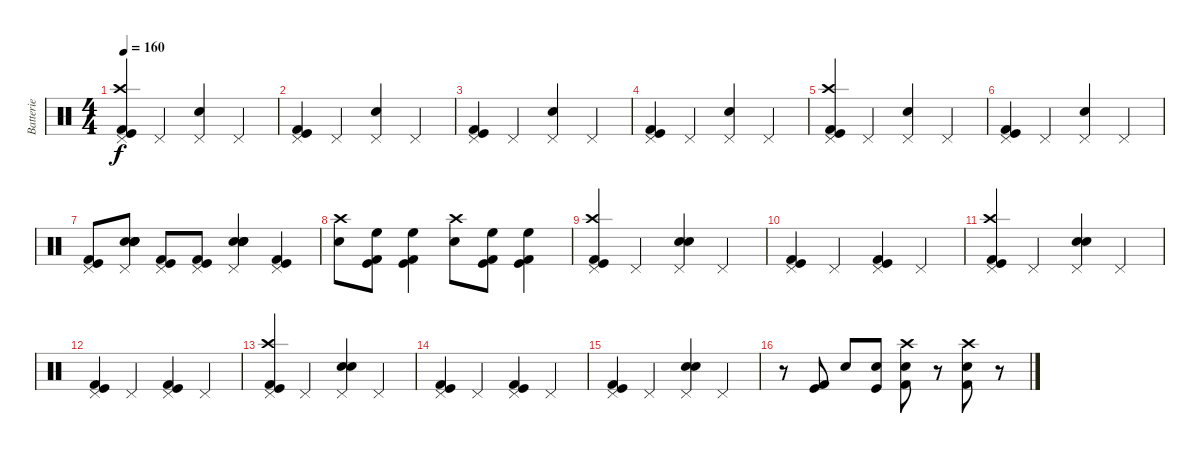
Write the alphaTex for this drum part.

\track ("Batterie" "Batterie") {instrument percussion}
\staff {score}
\articulation defaults
\ts (4 4)
\tempo 160
\clef neutral
\ks c
("Pedal Hi-Hat (hit)" "Crash high (hit)" "Kick (hit) 2" "Kick (hit)").4{dy f} "Pedal Hi-Hat (hit)".4 ("Pedal Hi-Hat (hit)" "Electric Snare (hit)").4 "Pedal Hi-Hat (hit)".4 |
("Pedal Hi-Hat (hit)" "Kick (hit) 2" "Kick (hit)").4 "Pedal Hi-Hat (hit)".4 ("Pedal Hi-Hat (hit)" "Electric Snare (hit)").4 "Pedal Hi-Hat (hit)".4 |
("Pedal Hi-Hat (hit)" "Kick (hit) 2" "Kick (hit)").4 "Pedal Hi-Hat (hit)".4 ("Pedal Hi-Hat (hit)" "Electric Snare (hit)").4 "Pedal Hi-Hat (hit)".4 |
("Pedal Hi-Hat (hit)" "Kick (hit) 2" "Kick (hit)").4 "Pedal Hi-Hat (hit)".4 ("Pedal Hi-Hat (hit)" "Electric Snare (hit)").4 "Pedal Hi-Hat (hit)".4 |
("Pedal Hi-Hat (hit)" "Crash high (hit)" "Kick (hit) 2" "Kick (hit)").4 "Pedal Hi-Hat (hit)".4 ("Pedal Hi-Hat (hit)" "Electric Snare (hit)").4 "Pedal Hi-Hat (hit)".4 |
("Pedal Hi-Hat (hit)" "Kick (hit) 2" "Kick (hit)").4 "Pedal Hi-Hat (hit)".4 ("Pedal Hi-Hat (hit)" "Electric Snare (hit)").4 "Pedal Hi-Hat (hit)".4 |
("Pedal Hi-Hat (hit)" "Kick (hit) 2" "Kick (hit)").8 ("Pedal Hi-Hat (hit)" "Electric Snare (hit)" "Electric Snare (hit)" "Snare (hit) 2" "Snare (hit) 2").8 ("Pedal Hi-Hat (hit)" "Kick (hit) 2" "Kick (hit)").8 ("Pedal Hi-Hat (hit)" "Kick (hit) 2" "Kick (hit)").8 ("Pedal Hi-Hat (hit)" "Electric Snare (hit)" "Electric Snare (hit)" "Snare (hit) 2" "Snare (hit) 2").4 ("Pedal Hi-Hat (hit)" "Kick (hit) 2" "Kick (hit)").4 |
("Electric Snare (hit)" "Crash high (hit)").8{volume 16} ("Kick (hit) 2" "Kick (hit)" "High Floor Tom (hit)").8 ("Kick (hit) 2" "Kick (hit)" "High Floor Tom (hit)").4 ("Electric Snare (hit)" "Crash high (hit)").8 ("Kick (hit) 2" "Kick (hit)" "High Floor Tom (hit)").8 ("Kick (hit) 2" "Kick (hit)" "High Floor Tom (hit)").4 |
("Crash high (hit)" "Pedal Hi-Hat (hit)" "Kick (hit)" "Kick (hit) 2").4 "Pedal Hi-Hat (hit)".4 ("Pedal Hi-Hat (hit)" "Electric Snare (hit)" "Electric Snare (hit)").4 "Pedal Hi-Hat (hit)".4 |
("Pedal Hi-Hat (hit)" "Kick (hit)" "Kick (hit) 2").4 "Pedal Hi-Hat (hit)".4 ("Pedal Hi-Hat (hit)" "Kick (hit)" "Kick (hit) 2").4 "Pedal Hi-Hat (hit)".4 |
("Crash high (hit)" "Pedal Hi-Hat (hit)" "Kick (hit)" "Kick (hit) 2").4 "Pedal Hi-Hat (hit)".4 ("Pedal Hi-Hat (hit)" "Electric Snare (hit)" "Electric Snare (hit)").4 "Pedal Hi-Hat (hit)".4 |
("Pedal Hi-Hat (hit)" "Kick (hit)" "Kick (hit) 2").4 "Pedal Hi-Hat (hit)".4 ("Pedal Hi-Hat (hit)" "Kick (hit)" "Kick (hit) 2").4 "Pedal Hi-Hat (hit)".4 |
("Crash high (hit)" "Pedal Hi-Hat (hit)" "Kick (hit)" "Kick (hit) 2").4 "Pedal Hi-Hat (hit)".4 ("Pedal Hi-Hat (hit)" "Electric Snare (hit)" "Electric Snare (hit)").4 "Pedal Hi-Hat (hit)".4 |
("Pedal Hi-Hat (hit)" "Kick (hit)" "Kick (hit) 2").4 "Pedal Hi-Hat (hit)".4 ("Pedal Hi-Hat (hit)" "Kick (hit)" "Kick (hit) 2").4 "Pedal Hi-Hat (hit)".4 |
("Pedal Hi-Hat (hit)" "Kick (hit)" "Kick (hit) 2").4 "Pedal Hi-Hat (hit)".4 ("Pedal Hi-Hat (hit)" "Electric Snare (hit)" "Electric Snare (hit)").4 "Pedal Hi-Hat (hit)".4 |
r.8 ("Kick (hit)" "Kick (hit) 2").8 "Electric Snare (hit)".8 ("Snare (hit) 2" "Kick (hit)").8 ("Crash high (hit)" "Snare (hit) 2" "Kick (hit) 2").8 r.8 ("Crash high (hit)" "Electric Snare (hit)" "Kick (hit) 2").8 r.8
